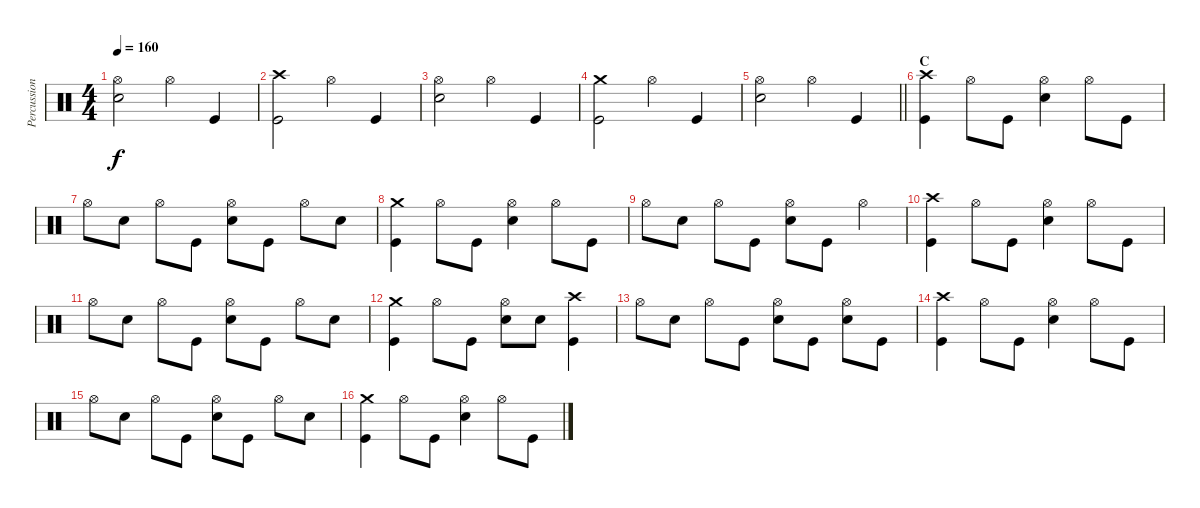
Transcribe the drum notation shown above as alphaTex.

\track ("Percussion" "Percussion") {instrument percussion}
\staff {score}
\articulation defaults
\ts (4 4)
\tempo 160
\clef neutral
\ks c
("Hi-Hat (open)" "Electric Snare (hit)").2{dy f} "Hi-Hat (open)".4 "Kick (hit)".4 |
("Crash high (hit)" "Kick (hit)").2 "Hi-Hat (open)".4 "Kick (hit)".4 |
("Hi-Hat (open)" "Electric Snare (hit)").2 "Hi-Hat (open)".4 "Kick (hit)".4 |
("Crash medium (hit)" "Kick (hit)").2 "Hi-Hat (open)".4 "Kick (hit)".4 |
\barLineRight lightlight
("Hi-Hat (open)" "Electric Snare (hit)").2 "Hi-Hat (open)".4 "Kick (hit)".4 |
\section ("" "C")
("Crash high (hit)" "Kick (hit)").4 "Hi-Hat (open)".8 "Kick (hit)".8 ("Hi-Hat (open)" "Electric Snare (hit)").4 "Hi-Hat (open)".8 "Kick (hit)".8 |
"Hi-Hat (open)".8 "Electric Snare (hit)".8 "Hi-Hat (open)".8 "Kick (hit)".8 ("Hi-Hat (open)" "Electric Snare (hit)").8 "Kick (hit)".8 "Hi-Hat (open)".8 "Electric Snare (hit)".8 |
("Crash medium (hit)" "Kick (hit)").4 "Hi-Hat (open)".8 "Kick (hit)".8 ("Hi-Hat (open)" "Electric Snare (hit)").4 "Hi-Hat (open)".8 "Kick (hit)".8 |
"Hi-Hat (open)".8 "Electric Snare (hit)".8 "Hi-Hat (open)".8 "Kick (hit)".8 ("Hi-Hat (open)" "Electric Snare (hit)").8 "Kick (hit)".8 "Hi-Hat (open)".4 |
("Crash high (hit)" "Kick (hit)").4 "Hi-Hat (open)".8 "Kick (hit)".8 ("Hi-Hat (open)" "Electric Snare (hit)").4 "Hi-Hat (open)".8 "Kick (hit)".8 |
"Hi-Hat (open)".8 "Electric Snare (hit)".8 "Hi-Hat (open)".8 "Kick (hit)".8 ("Hi-Hat (open)" "Electric Snare (hit)").8 "Kick (hit)".8 "Hi-Hat (open)".8 "Electric Snare (hit)".8 |
("Crash medium (hit)" "Kick (hit)").4 "Hi-Hat (open)".8 "Kick (hit)".8 ("Hi-Hat (open)" "Electric Snare (hit)").8 "Electric Snare (hit)".8 ("Crash high (hit)" "Kick (hit)").4 |
"Hi-Hat (open)".8 "Electric Snare (hit)".8 "Hi-Hat (open)".8 "Kick (hit)".8 ("Hi-Hat (open)" "Electric Snare (hit)").8 "Kick (hit)".8 ("Hi-Hat (open)" "Electric Snare (hit)").8 "Kick (hit)".8 |
("Crash high (hit)" "Kick (hit)").4 "Hi-Hat (open)".8 "Kick (hit)".8 ("Hi-Hat (open)" "Electric Snare (hit)").4 "Hi-Hat (open)".8 "Kick (hit)".8 |
"Hi-Hat (open)".8 "Electric Snare (hit)".8 "Hi-Hat (open)".8 "Kick (hit)".8 ("Hi-Hat (open)" "Electric Snare (hit)").8 "Kick (hit)".8 "Hi-Hat (open)".8 "Electric Snare (hit)".8 |
("Crash medium (hit)" "Kick (hit)").4 "Hi-Hat (open)".8 "Kick (hit)".8 ("Hi-Hat (open)" "Electric Snare (hit)").4 "Hi-Hat (open)".8 "Kick (hit)".8
